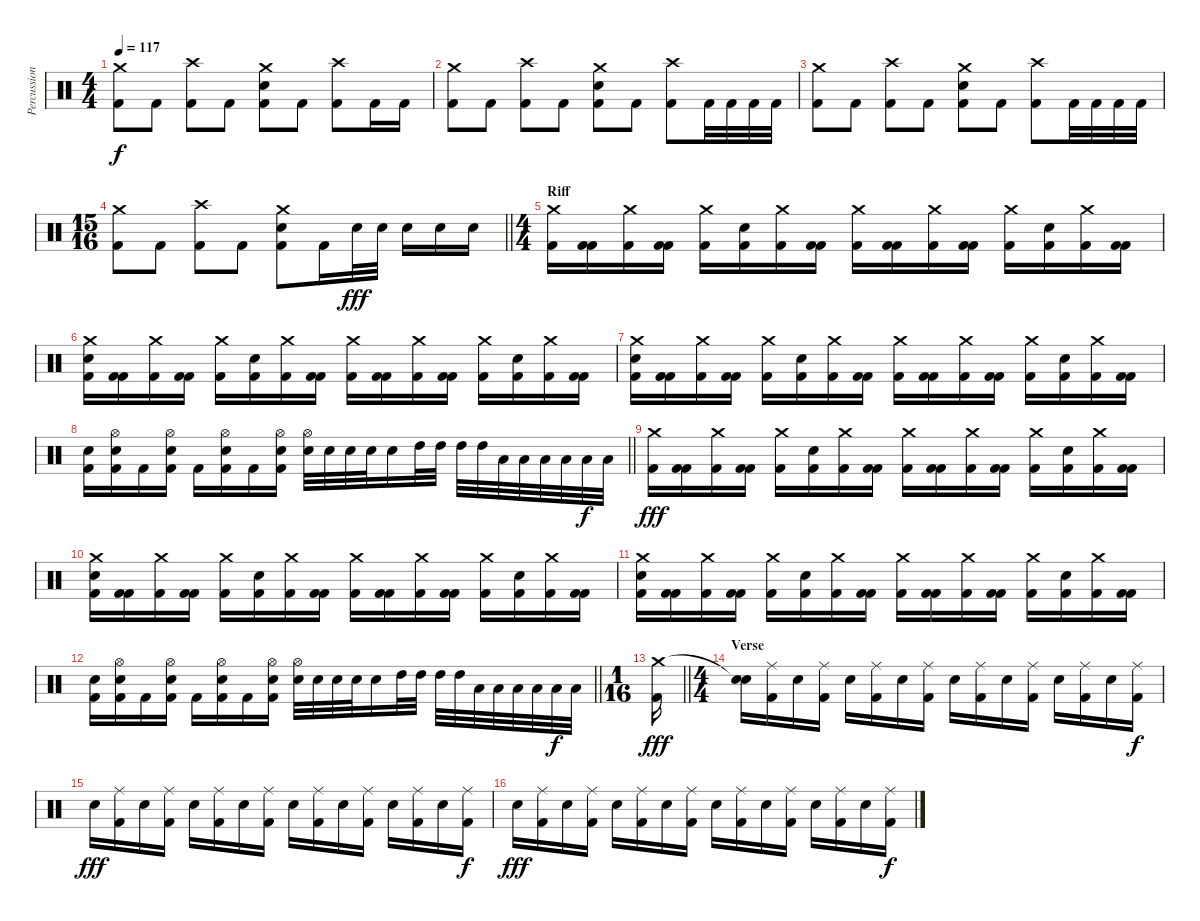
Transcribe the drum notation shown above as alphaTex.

\track ("Percussioni" "Percussion") {instrument percussion}
\staff {score}
\articulation defaults
\ts (4 4)
\tempo 117
\clef neutral
\ks c
("Crash medium (hit)" "Kick (hit) 2").8{dy f} "Kick (hit) 2".8 ("Crash high (hit)" "Kick (hit) 2").8 "Kick (hit) 2".8 ("Crash medium (hit)" "Electric Snare (hit)" "Kick (hit) 2").8 "Kick (hit) 2".8 ("Crash high (hit)" "Kick (hit) 2").8 "Kick (hit) 2".16 "Kick (hit) 2".16 |
("Crash medium (hit)" "Kick (hit) 2").8 "Kick (hit) 2".8 ("Crash high (hit)" "Kick (hit) 2").8 "Kick (hit) 2".8 ("Crash medium (hit)" "Electric Snare (hit)" "Kick (hit) 2").8 "Kick (hit) 2".8 ("Crash high (hit)" "Kick (hit) 2").8 "Kick (hit) 2".32 "Kick (hit) 2".32 "Kick (hit) 2".32 "Kick (hit) 2".32 |
("Crash medium (hit)" "Kick (hit) 2").8 "Kick (hit) 2".8 ("Crash high (hit)" "Kick (hit) 2").8 "Kick (hit) 2".8 ("Crash medium (hit)" "Electric Snare (hit)" "Kick (hit) 2").8 "Kick (hit) 2".8 ("Crash high (hit)" "Kick (hit) 2").8 "Kick (hit) 2".32 "Kick (hit) 2".32 "Kick (hit) 2".32 "Kick (hit) 2".32 |
\ts (15 16)
\barLineRight lightlight
("Crash medium (hit)" "Kick (hit) 2").8 "Kick (hit) 2".8 ("Crash high (hit)" "Kick (hit) 2").8 "Kick (hit) 2".8 ("Crash medium (hit)" "Electric Snare (hit)" "Kick (hit) 2").8 "Kick (hit) 2".16 "Electric Snare (hit)".32{dy fff} "Electric Snare (hit)".32 "Electric Snare (hit)".16 "Electric Snare (hit)".16 "Electric Snare (hit)".16 |
\ts (4 4)
\section ("" "Riff")
("Crash medium (hit)" "Kick (hit) 2").16 ("Kick (hit) 2" "Kick (hit) 2").16 ("Crash medium (hit)" "Kick (hit) 2").16 ("Kick (hit) 2" "Kick (hit) 2").16 ("Crash medium (hit)" "Kick (hit) 2").16 ("Electric Snare (hit)" "Kick (hit) 2").16 ("Crash medium (hit)" "Kick (hit) 2").16 ("Kick (hit) 2" "Kick (hit) 2").16 ("Crash medium (hit)" "Kick (hit) 2").16 ("Kick (hit) 2" "Kick (hit) 2").16 ("Crash medium (hit)" "Kick (hit) 2").16 ("Kick (hit) 2" "Kick (hit) 2").16 ("Crash medium (hit)" "Kick (hit) 2").16 ("Electric Snare (hit)" "Kick (hit) 2").16 ("Crash medium (hit)" "Kick (hit) 2").16 ("Kick (hit) 2" "Kick (hit) 2").16 |
("Crash medium (hit)" "Electric Snare (hit)" "Kick (hit) 2").16 ("Kick (hit) 2" "Kick (hit) 2").16 ("Crash medium (hit)" "Kick (hit) 2").16 ("Kick (hit) 2" "Kick (hit) 2").16 ("Crash medium (hit)" "Kick (hit) 2").16 ("Electric Snare (hit)" "Kick (hit) 2").16 ("Crash medium (hit)" "Kick (hit) 2").16 ("Kick (hit) 2" "Kick (hit) 2").16 ("Crash medium (hit)" "Kick (hit) 2").16 ("Kick (hit) 2" "Kick (hit) 2").16 ("Crash medium (hit)" "Kick (hit) 2").16 ("Kick (hit) 2" "Kick (hit) 2").16 ("Crash medium (hit)" "Kick (hit) 2").16 ("Electric Snare (hit)" "Kick (hit) 2").16 ("Crash medium (hit)" "Kick (hit) 2").16 ("Kick (hit) 2" "Kick (hit) 2").16 |
("Crash medium (hit)" "Electric Snare (hit)" "Kick (hit) 2").16 ("Kick (hit) 2" "Kick (hit) 2").16 ("Crash medium (hit)" "Kick (hit) 2").16 ("Kick (hit) 2" "Kick (hit) 2").16 ("Crash medium (hit)" "Kick (hit) 2").16 ("Electric Snare (hit)" "Kick (hit) 2").16 ("Crash medium (hit)" "Kick (hit) 2").16 ("Kick (hit) 2" "Kick (hit) 2").16 ("Crash medium (hit)" "Kick (hit) 2").16 ("Kick (hit) 2" "Kick (hit) 2").16 ("Crash medium (hit)" "Kick (hit) 2").16 ("Kick (hit) 2" "Kick (hit) 2").16 ("Crash medium (hit)" "Kick (hit) 2").16 ("Electric Snare (hit)" "Kick (hit) 2").16 ("Crash medium (hit)" "Kick (hit) 2").16 ("Kick (hit) 2" "Kick (hit) 2").16 |
\barLineRight lightlight
("Electric Snare (hit)" "Kick (hit) 2").16 ("Hi-Hat (open)" "Electric Snare (hit)" "Kick (hit) 2").16 "Kick (hit) 2".16 ("Hi-Hat (open)" "Electric Snare (hit)" "Kick (hit) 2").16 "Kick (hit) 2".16 ("Hi-Hat (open)" "Electric Snare (hit)" "Kick (hit) 2").16 "Kick (hit) 2".16 ("Hi-Hat (open)" "Electric Snare (hit)" "Kick (hit) 2").16 ("Hi-Hat (open)" "Electric Snare (hit)").32 "Electric Snare (hit)".32 "Electric Snare (hit)".32 "Electric Snare (hit)".32 "Electric Snare (hit)".16 "High Tom (hit)".32 "High Tom (hit)".32 "High Tom (hit)".32 "High Tom (hit)".32 "Low Tom (hit)".32 "Low Tom (hit)".32 "Low Floor Tom (hit)".32 "Low Floor Tom (hit)".32 "Low Floor Tom (hit)".32{dy f} "Low Floor Tom (hit)".32 |
("Crash medium (hit)" "Kick (hit) 2").16{dy fff} ("Kick (hit) 2" "Kick (hit) 2").16 ("Crash medium (hit)" "Kick (hit) 2").16 ("Kick (hit) 2" "Kick (hit) 2").16 ("Crash medium (hit)" "Kick (hit) 2").16 ("Electric Snare (hit)" "Kick (hit) 2").16 ("Crash medium (hit)" "Kick (hit) 2").16 ("Kick (hit) 2" "Kick (hit) 2").16 ("Crash medium (hit)" "Kick (hit) 2").16 ("Kick (hit) 2" "Kick (hit) 2").16 ("Crash medium (hit)" "Kick (hit) 2").16 ("Kick (hit) 2" "Kick (hit) 2").16 ("Crash medium (hit)" "Kick (hit) 2").16 ("Electric Snare (hit)" "Kick (hit) 2").16 ("Crash medium (hit)" "Kick (hit) 2").16 ("Kick (hit) 2" "Kick (hit) 2").16 |
("Crash medium (hit)" "Electric Snare (hit)" "Kick (hit) 2").16 ("Kick (hit) 2" "Kick (hit) 2").16 ("Crash medium (hit)" "Kick (hit) 2").16 ("Kick (hit) 2" "Kick (hit) 2").16 ("Crash medium (hit)" "Kick (hit) 2").16 ("Electric Snare (hit)" "Kick (hit) 2").16 ("Crash medium (hit)" "Kick (hit) 2").16 ("Kick (hit) 2" "Kick (hit) 2").16 ("Crash medium (hit)" "Kick (hit) 2").16 ("Kick (hit) 2" "Kick (hit) 2").16 ("Crash medium (hit)" "Kick (hit) 2").16 ("Kick (hit) 2" "Kick (hit) 2").16 ("Crash medium (hit)" "Kick (hit) 2").16 ("Electric Snare (hit)" "Kick (hit) 2").16 ("Crash medium (hit)" "Kick (hit) 2").16 ("Kick (hit) 2" "Kick (hit) 2").16 |
("Crash medium (hit)" "Electric Snare (hit)" "Kick (hit) 2").16 ("Kick (hit) 2" "Kick (hit) 2").16 ("Crash medium (hit)" "Kick (hit) 2").16 ("Kick (hit) 2" "Kick (hit) 2").16 ("Crash medium (hit)" "Kick (hit) 2").16 ("Electric Snare (hit)" "Kick (hit) 2").16 ("Crash medium (hit)" "Kick (hit) 2").16 ("Kick (hit) 2" "Kick (hit) 2").16 ("Crash medium (hit)" "Kick (hit) 2").16 ("Kick (hit) 2" "Kick (hit) 2").16 ("Crash medium (hit)" "Kick (hit) 2").16 ("Kick (hit) 2" "Kick (hit) 2").16 ("Crash medium (hit)" "Kick (hit) 2").16 ("Electric Snare (hit)" "Kick (hit) 2").16 ("Crash medium (hit)" "Kick (hit) 2").16 ("Kick (hit) 2" "Kick (hit) 2").16 |
\barLineRight lightlight
("Electric Snare (hit)" "Kick (hit) 2").16 ("Hi-Hat (open)" "Electric Snare (hit)" "Kick (hit) 2").16 "Kick (hit) 2".16 ("Hi-Hat (open)" "Electric Snare (hit)" "Kick (hit) 2").16 "Kick (hit) 2".16 ("Hi-Hat (open)" "Electric Snare (hit)" "Kick (hit) 2").16 "Kick (hit) 2".16 ("Hi-Hat (open)" "Electric Snare (hit)" "Kick (hit) 2").16 ("Hi-Hat (open)" "Electric Snare (hit)").32 "Electric Snare (hit)".32 "Electric Snare (hit)".32 "Electric Snare (hit)".32 "Electric Snare (hit)".16 "High Tom (hit)".32 "High Tom (hit)".32 "High Tom (hit)".32 "High Tom (hit)".32 "Low Tom (hit)".32 "Low Tom (hit)".32 "Low Floor Tom (hit)".32 "Low Floor Tom (hit)".32 "Low Floor Tom (hit)".32{dy f} "Low Floor Tom (hit)".32 |
\ts (1 16)
\barLineRight lightlight
("Crash medium (hit)" "Kick (hit) 2").16{dy fff} |
\ts (4 4)
\section ("" "Verse")
("Snare (hit)"{t} "Electric Snare (hit)").16 ("Ride (middle)" "Kick (hit) 2").16 "Electric Snare (hit)".16 ("Ride (middle)" "Kick (hit) 2").16 "Electric Snare (hit)".16 ("Ride (middle)" "Kick (hit) 2").16 "Electric Snare (hit)".16 ("Ride (middle)" "Kick (hit) 2").16 "Electric Snare (hit)".16 ("Ride (middle)" "Kick (hit) 2").16 "Electric Snare (hit)".16 ("Ride (middle)" "Kick (hit) 2").16 "Electric Snare (hit)".16 ("Ride (middle)" "Kick (hit) 2").16 "Electric Snare (hit)".16 ("Ride (middle)" "Kick (hit) 2").16{dy f} |
"Electric Snare (hit)".16{dy fff} ("Ride (middle)" "Kick (hit) 2").16 "Electric Snare (hit)".16 ("Ride (middle)" "Kick (hit) 2").16 "Electric Snare (hit)".16 ("Ride (middle)" "Kick (hit) 2").16 "Electric Snare (hit)".16 ("Ride (middle)" "Kick (hit) 2").16 "Electric Snare (hit)".16 ("Ride (middle)" "Kick (hit) 2").16 "Electric Snare (hit)".16 ("Ride (middle)" "Kick (hit) 2").16 "Electric Snare (hit)".16 ("Ride (middle)" "Kick (hit) 2").16 "Electric Snare (hit)".16 ("Ride (middle)" "Kick (hit) 2").16{dy f} |
"Electric Snare (hit)".16{dy fff} ("Ride (middle)" "Kick (hit) 2").16 "Electric Snare (hit)".16 ("Ride (middle)" "Kick (hit) 2").16 "Electric Snare (hit)".16 ("Ride (middle)" "Kick (hit) 2").16 "Electric Snare (hit)".16 ("Ride (middle)" "Kick (hit) 2").16 "Electric Snare (hit)".16 ("Ride (middle)" "Kick (hit) 2").16 "Electric Snare (hit)".16 ("Ride (middle)" "Kick (hit) 2").16 "Electric Snare (hit)".16 ("Ride (middle)" "Kick (hit) 2").16 "Electric Snare (hit)".16 ("Ride (middle)" "Kick (hit) 2").16{dy f}
